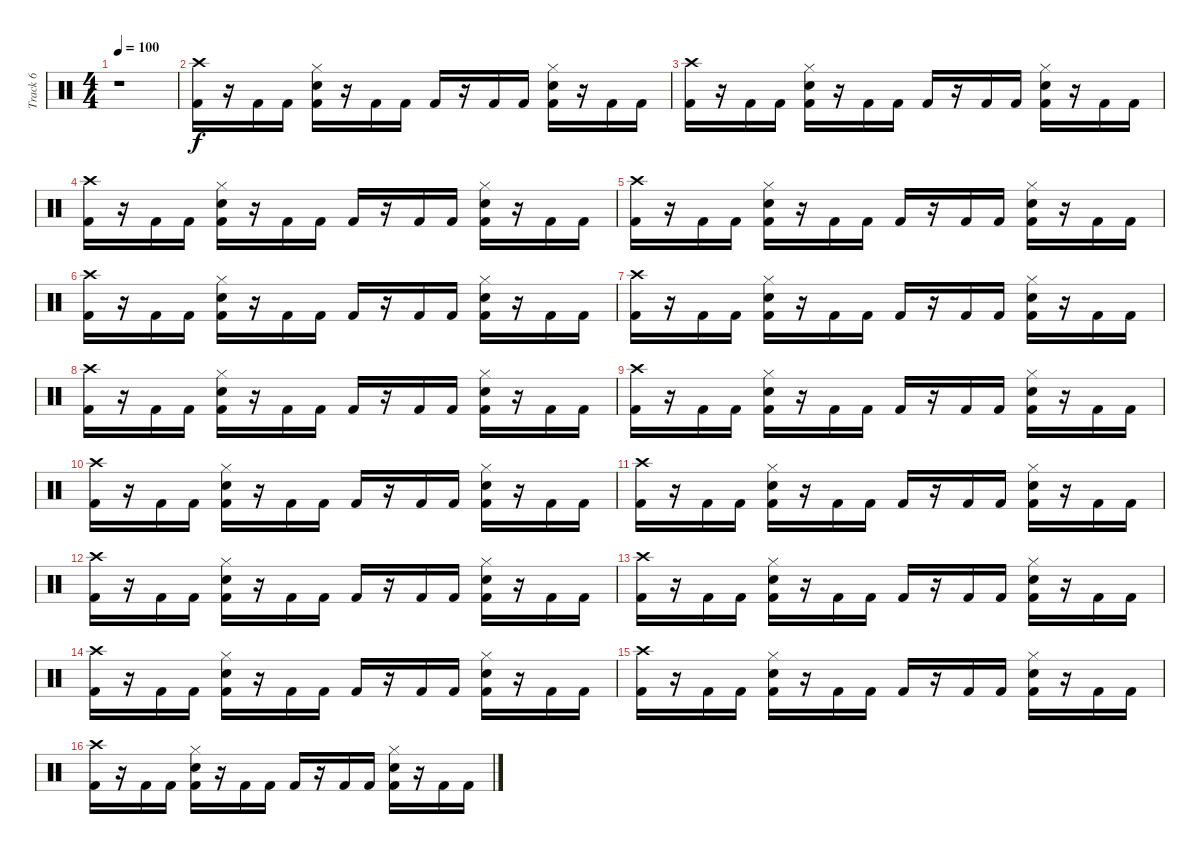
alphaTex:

\track ("Track 6" "Track 6") {instrument percussion}
\staff {score}
\articulation defaults
\ts (4 4)
\tempo 100
\clef neutral
\ks c
r.1{dy f} |
("Crash high (hit)" "Kick (hit) 2").16 r.16 "Kick (hit) 2".16 "Kick (hit) 2".16 ("Kick (hit) 2" "Snare (hit) 2" "Hi-Hat (closed)").16 r.16 "Kick (hit) 2".16 "Kick (hit) 2".16 "Kick (hit) 2".16 r.16 "Kick (hit) 2".16 "Kick (hit) 2".16 ("Kick (hit) 2" "Snare (hit) 2" "Hi-Hat (closed)").16 r.16 "Kick (hit) 2".16 "Kick (hit) 2".16 |
("Crash high (hit)" "Kick (hit) 2").16 r.16 "Kick (hit) 2".16 "Kick (hit) 2".16 ("Kick (hit) 2" "Snare (hit) 2" "Hi-Hat (closed)").16 r.16 "Kick (hit) 2".16 "Kick (hit) 2".16 "Kick (hit) 2".16 r.16 "Kick (hit) 2".16 "Kick (hit) 2".16 ("Kick (hit) 2" "Snare (hit) 2" "Hi-Hat (closed)").16 r.16 "Kick (hit) 2".16 "Kick (hit) 2".16 |
("Crash high (hit)" "Kick (hit) 2").16 r.16 "Kick (hit) 2".16 "Kick (hit) 2".16 ("Kick (hit) 2" "Snare (hit) 2" "Hi-Hat (closed)").16 r.16 "Kick (hit) 2".16 "Kick (hit) 2".16 "Kick (hit) 2".16 r.16 "Kick (hit) 2".16 "Kick (hit) 2".16 ("Kick (hit) 2" "Snare (hit) 2" "Hi-Hat (closed)").16 r.16 "Kick (hit) 2".16 "Kick (hit) 2".16 |
("Crash high (hit)" "Kick (hit) 2").16 r.16 "Kick (hit) 2".16 "Kick (hit) 2".16 ("Kick (hit) 2" "Snare (hit) 2" "Hi-Hat (closed)").16 r.16 "Kick (hit) 2".16 "Kick (hit) 2".16 "Kick (hit) 2".16 r.16 "Kick (hit) 2".16 "Kick (hit) 2".16 ("Kick (hit) 2" "Snare (hit) 2" "Hi-Hat (closed)").16 r.16 "Kick (hit) 2".16 "Kick (hit) 2".16 |
("Crash high (hit)" "Kick (hit) 2").16 r.16 "Kick (hit) 2".16 "Kick (hit) 2".16 ("Kick (hit) 2" "Snare (hit) 2" "Hi-Hat (closed)").16 r.16 "Kick (hit) 2".16 "Kick (hit) 2".16 "Kick (hit) 2".16 r.16 "Kick (hit) 2".16 "Kick (hit) 2".16 ("Kick (hit) 2" "Snare (hit) 2" "Hi-Hat (closed)").16 r.16 "Kick (hit) 2".16 "Kick (hit) 2".16 |
("Crash high (hit)" "Kick (hit) 2").16 r.16 "Kick (hit) 2".16 "Kick (hit) 2".16 ("Kick (hit) 2" "Snare (hit) 2" "Hi-Hat (closed)").16 r.16 "Kick (hit) 2".16 "Kick (hit) 2".16 "Kick (hit) 2".16 r.16 "Kick (hit) 2".16 "Kick (hit) 2".16 ("Kick (hit) 2" "Snare (hit) 2" "Hi-Hat (closed)").16 r.16 "Kick (hit) 2".16 "Kick (hit) 2".16 |
("Crash high (hit)" "Kick (hit) 2").16 r.16 "Kick (hit) 2".16 "Kick (hit) 2".16 ("Kick (hit) 2" "Snare (hit) 2" "Hi-Hat (closed)").16 r.16 "Kick (hit) 2".16 "Kick (hit) 2".16 "Kick (hit) 2".16 r.16 "Kick (hit) 2".16 "Kick (hit) 2".16 ("Kick (hit) 2" "Snare (hit) 2" "Hi-Hat (closed)").16 r.16 "Kick (hit) 2".16 "Kick (hit) 2".16 |
("Crash high (hit)" "Kick (hit) 2").16 r.16 "Kick (hit) 2".16 "Kick (hit) 2".16 ("Kick (hit) 2" "Snare (hit) 2" "Hi-Hat (closed)").16 r.16 "Kick (hit) 2".16 "Kick (hit) 2".16 "Kick (hit) 2".16 r.16 "Kick (hit) 2".16 "Kick (hit) 2".16 ("Kick (hit) 2" "Snare (hit) 2" "Hi-Hat (closed)").16 r.16 "Kick (hit) 2".16 "Kick (hit) 2".16 |
("Crash high (hit)" "Kick (hit) 2").16 r.16 "Kick (hit) 2".16 "Kick (hit) 2".16 ("Kick (hit) 2" "Snare (hit) 2" "Hi-Hat (closed)").16 r.16 "Kick (hit) 2".16 "Kick (hit) 2".16 "Kick (hit) 2".16 r.16 "Kick (hit) 2".16 "Kick (hit) 2".16 ("Kick (hit) 2" "Snare (hit) 2" "Hi-Hat (closed)").16 r.16 "Kick (hit) 2".16 "Kick (hit) 2".16 |
("Crash high (hit)" "Kick (hit) 2").16 r.16 "Kick (hit) 2".16 "Kick (hit) 2".16 ("Kick (hit) 2" "Snare (hit) 2" "Hi-Hat (closed)").16 r.16 "Kick (hit) 2".16 "Kick (hit) 2".16 "Kick (hit) 2".16 r.16 "Kick (hit) 2".16 "Kick (hit) 2".16 ("Kick (hit) 2" "Snare (hit) 2" "Hi-Hat (closed)").16 r.16 "Kick (hit) 2".16 "Kick (hit) 2".16 |
("Crash high (hit)" "Kick (hit) 2").16 r.16 "Kick (hit) 2".16 "Kick (hit) 2".16 ("Kick (hit) 2" "Snare (hit) 2" "Hi-Hat (closed)").16 r.16 "Kick (hit) 2".16 "Kick (hit) 2".16 "Kick (hit) 2".16 r.16 "Kick (hit) 2".16 "Kick (hit) 2".16 ("Kick (hit) 2" "Snare (hit) 2" "Hi-Hat (closed)").16 r.16 "Kick (hit) 2".16 "Kick (hit) 2".16 |
("Crash high (hit)" "Kick (hit) 2").16 r.16 "Kick (hit) 2".16 "Kick (hit) 2".16 ("Kick (hit) 2" "Snare (hit) 2" "Hi-Hat (closed)").16 r.16 "Kick (hit) 2".16 "Kick (hit) 2".16 "Kick (hit) 2".16 r.16 "Kick (hit) 2".16 "Kick (hit) 2".16 ("Kick (hit) 2" "Snare (hit) 2" "Hi-Hat (closed)").16 r.16 "Kick (hit) 2".16 "Kick (hit) 2".16 |
("Crash high (hit)" "Kick (hit) 2").16 r.16 "Kick (hit) 2".16 "Kick (hit) 2".16 ("Kick (hit) 2" "Snare (hit) 2" "Hi-Hat (closed)").16 r.16 "Kick (hit) 2".16 "Kick (hit) 2".16 "Kick (hit) 2".16 r.16 "Kick (hit) 2".16 "Kick (hit) 2".16 ("Kick (hit) 2" "Snare (hit) 2" "Hi-Hat (closed)").16 r.16 "Kick (hit) 2".16 "Kick (hit) 2".16 |
("Crash high (hit)" "Kick (hit) 2").16 r.16 "Kick (hit) 2".16 "Kick (hit) 2".16 ("Kick (hit) 2" "Snare (hit) 2" "Hi-Hat (closed)").16 r.16 "Kick (hit) 2".16 "Kick (hit) 2".16 "Kick (hit) 2".16 r.16 "Kick (hit) 2".16 "Kick (hit) 2".16 ("Kick (hit) 2" "Snare (hit) 2" "Hi-Hat (closed)").16 r.16 "Kick (hit) 2".16 "Kick (hit) 2".16 |
("Crash high (hit)" "Kick (hit) 2").16 r.16 "Kick (hit) 2".16 "Kick (hit) 2".16 ("Kick (hit) 2" "Snare (hit) 2" "Hi-Hat (closed)").16 r.16 "Kick (hit) 2".16 "Kick (hit) 2".16 "Kick (hit) 2".16 r.16 "Kick (hit) 2".16 "Kick (hit) 2".16 ("Kick (hit) 2" "Snare (hit) 2" "Hi-Hat (closed)").16 r.16 "Kick (hit) 2".16 "Kick (hit) 2".16
